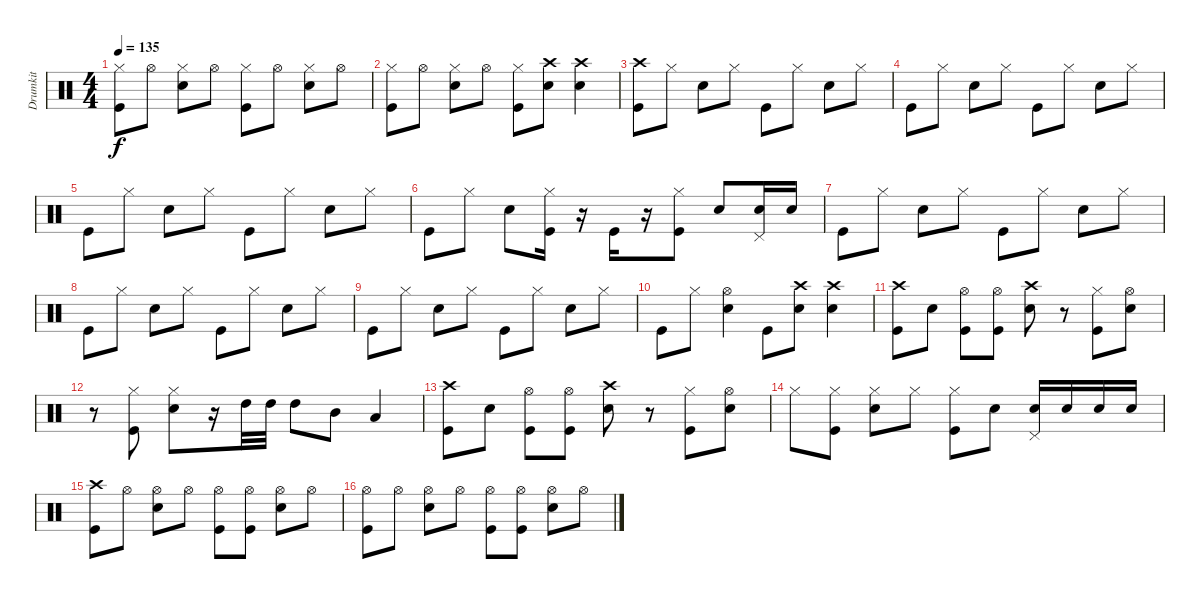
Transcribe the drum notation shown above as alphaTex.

\track ("Drumkit" "Drumkit") {instrument percussion}
\staff {score}
\articulation defaults
\ts (4 4)
\tempo 135
\clef neutral
\ks c
("Hi-Hat (closed)" "Kick (hit)").8{dy f} "Hi-Hat (open)".8 ("Snare (hit) 2" "Hi-Hat (closed)").8 "Hi-Hat (open)".8 ("Kick (hit)" "Hi-Hat (closed)").8 "Hi-Hat (open)".8 ("Snare (hit) 2" "Hi-Hat (closed)").8 "Hi-Hat (open)".8 |
("Hi-Hat (closed)" "Kick (hit)").8 "Hi-Hat (open)".8 ("Snare (hit) 2" "Hi-Hat (closed)").8 "Hi-Hat (open)".8 ("Kick (hit)" "Hi-Hat (closed)").8 ("Crash high (hit)" "Snare (hit) 2").8 ("Crash high (hit)" "Snare (hit) 2").4 |
("Crash high (hit)" "Kick (hit)").8 "Hi-Hat (closed)".8 "Snare (hit) 2".8 "Hi-Hat (closed)".8 "Kick (hit)".8 "Hi-Hat (closed)".8 "Snare (hit) 2".8 "Hi-Hat (closed)".8 |
"Kick (hit)".8 "Hi-Hat (closed)".8 "Snare (hit) 2".8 "Hi-Hat (closed)".8 "Kick (hit)".8 "Hi-Hat (closed)".8 "Snare (hit) 2".8 "Hi-Hat (closed)".8 |
"Kick (hit)".8 "Hi-Hat (closed)".8 "Snare (hit) 2".8 "Hi-Hat (closed)".8 "Kick (hit)".8 "Hi-Hat (closed)".8 "Snare (hit) 2".8 "Hi-Hat (closed)".8 |
"Kick (hit)".8 "Hi-Hat (closed)".8 "Snare (hit) 2".8 ("Kick (hit)" "Hi-Hat (closed)").16 r.16 "Kick (hit)".16 r.16 ("Kick (hit)" "Hi-Hat (closed)").8 "Snare (hit) 2".8 ("Pedal Hi-Hat (hit)" "Snare (hit) 2").16 "Snare (hit) 2".16 |
"Kick (hit)".8 "Hi-Hat (closed)".8 "Snare (hit) 2".8 "Hi-Hat (closed)".8 "Kick (hit)".8 "Hi-Hat (closed)".8 "Snare (hit) 2".8 "Hi-Hat (closed)".8 |
"Kick (hit)".8 "Hi-Hat (closed)".8 "Snare (hit) 2".8 "Hi-Hat (closed)".8 "Kick (hit)".8 "Hi-Hat (closed)".8 "Snare (hit) 2".8 "Hi-Hat (closed)".8 |
"Kick (hit)".8 "Hi-Hat (closed)".8 "Snare (hit) 2".8 "Hi-Hat (closed)".8 "Kick (hit)".8 "Hi-Hat (closed)".8 "Snare (hit) 2".8 "Hi-Hat (closed)".8 |
"Kick (hit)".8 "Hi-Hat (closed)".8 ("Hi-Hat (open)" "Snare (hit) 2").4 "Kick (hit)".8 ("Crash high (hit)" "Snare (hit) 2").8 ("Crash high (hit)" "Snare (hit) 2").4 |
("Kick (hit)" "Crash high (hit)").8 "Snare (hit) 2".8 ("Hi-Hat (open)" "Kick (hit)").8 ("Hi-Hat (open)" "Kick (hit)").8 ("Crash high (hit)" "Snare (hit) 2").8 r.8 ("Hi-Hat (closed)" "Kick (hit)").8 ("Hi-Hat (open)" "Snare (hit) 2").8 |
r.8 ("Hi-Hat (closed)" "Kick (hit)").8 ("Hi-Hat (closed)" "Snare (hit) 2").8 r.16 "High Tom (hit)".32 "High Tom (hit)".32 "High Tom (hit)".8 "Mid Tom (hit)".8 "Low Tom (hit)".4 |
("Kick (hit)" "Crash high (hit)").8 "Snare (hit) 2".8 ("Hi-Hat (open)" "Kick (hit)").8 ("Hi-Hat (open)" "Kick (hit)").8 ("Crash high (hit)" "Snare (hit) 2").8 r.8 ("Hi-Hat (closed)" "Kick (hit)").8 ("Hi-Hat (open)" "Snare (hit) 2").8 |
"Hi-Hat (closed)".8 ("Hi-Hat (closed)" "Kick (hit)").8 ("Hi-Hat (closed)" "Snare (hit) 2").8 "Hi-Hat (closed)".8 ("Hi-Hat (closed)" "Kick (hit)").8 "Snare (hit) 2".8 ("Pedal Hi-Hat (hit)" "Snare (hit) 2").16 "Snare (hit) 2".16 "Snare (hit) 2".16 "Snare (hit) 2".16 |
("Kick (hit)" "Crash high (hit)").8 "Hi-Hat (open)".8 ("Snare (hit) 2" "Hi-Hat (open)").8 "Hi-Hat (open)".8 ("Hi-Hat (open)" "Kick (hit)").8 ("Kick (hit)" "Hi-Hat (open)").8 ("Hi-Hat (open)" "Snare (hit) 2").8 "Hi-Hat (open)".8 |
("Hi-Hat (open)" "Kick (hit)").8 "Hi-Hat (open)".8 ("Hi-Hat (open)" "Snare (hit) 2").8 "Hi-Hat (open)".8 ("Kick (hit)" "Hi-Hat (open)").8 ("Kick (hit)" "Hi-Hat (open)").8 ("Snare (hit) 2" "Hi-Hat (open)").8 "Hi-Hat (open)".8
